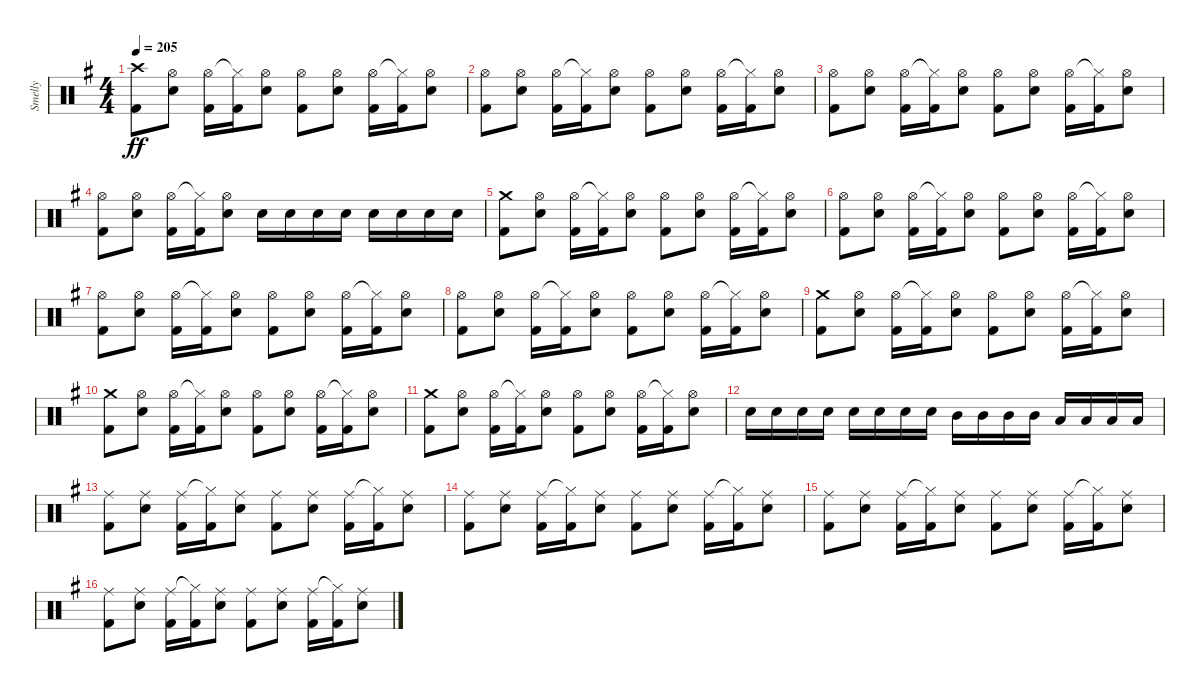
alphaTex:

\track ("Smelly" "Smelly") {instrument percussion}
\staff {score}
\articulation defaults
\ts (4 4)
\tempo 205
\clef neutral
\ks eminor
("Crash high (hit)" "Kick (hit) 2").8{dy ff} ("Hi-Hat (open)" "Electric Snare (hit)").8 ("Hi-Hat (open)" "Kick (hit) 2").16 ("Hi-Hat (closed)"{t} "Kick (hit) 2").16 ("Hi-Hat (open)" "Electric Snare (hit)").8 ("Hi-Hat (open)" "Kick (hit) 2").8 ("Hi-Hat (open)" "Electric Snare (hit)").8 ("Hi-Hat (open)" "Kick (hit) 2").16 ("Hi-Hat (closed)"{t} "Kick (hit) 2").16 ("Hi-Hat (open)" "Electric Snare (hit)").8 |
("Hi-Hat (open)" "Kick (hit) 2").8 ("Hi-Hat (open)" "Electric Snare (hit)").8 ("Hi-Hat (open)" "Kick (hit) 2").16 ("Hi-Hat (closed)"{t} "Kick (hit) 2").16 ("Hi-Hat (open)" "Electric Snare (hit)").8 ("Hi-Hat (open)" "Kick (hit) 2").8 ("Hi-Hat (open)" "Electric Snare (hit)").8 ("Hi-Hat (open)" "Kick (hit) 2").16 ("Hi-Hat (closed)"{t} "Kick (hit) 2").16 ("Hi-Hat (open)" "Electric Snare (hit)").8 |
("Hi-Hat (open)" "Kick (hit) 2").8 ("Hi-Hat (open)" "Electric Snare (hit)").8 ("Hi-Hat (open)" "Kick (hit) 2").16 ("Hi-Hat (closed)"{t} "Kick (hit) 2").16 ("Hi-Hat (open)" "Electric Snare (hit)").8 ("Hi-Hat (open)" "Kick (hit) 2").8 ("Hi-Hat (open)" "Electric Snare (hit)").8 ("Hi-Hat (open)" "Kick (hit) 2").16 ("Hi-Hat (closed)"{t} "Kick (hit) 2").16 ("Hi-Hat (open)" "Electric Snare (hit)").8 |
("Hi-Hat (open)" "Kick (hit) 2").8 ("Hi-Hat (open)" "Electric Snare (hit)").8 ("Hi-Hat (open)" "Kick (hit) 2").16 ("Hi-Hat (closed)"{t} "Kick (hit) 2").16 ("Hi-Hat (open)" "Electric Snare (hit)").8 "Electric Snare (hit)".16 "Electric Snare (hit)".16 "Electric Snare (hit)".16 "Electric Snare (hit)".16 "Electric Snare (hit)".16 "Electric Snare (hit)".16 "Electric Snare (hit)".16 "Electric Snare (hit)".16 |
("Crash medium (hit)" "Kick (hit) 2").8 ("Hi-Hat (open)" "Electric Snare (hit)").8 ("Hi-Hat (open)" "Kick (hit) 2").16 ("Hi-Hat (closed)"{t} "Kick (hit) 2").16 ("Hi-Hat (open)" "Electric Snare (hit)").8 ("Hi-Hat (open)" "Kick (hit) 2").8 ("Hi-Hat (open)" "Electric Snare (hit)").8 ("Hi-Hat (open)" "Kick (hit) 2").16 ("Hi-Hat (closed)"{t} "Kick (hit) 2").16 ("Hi-Hat (open)" "Electric Snare (hit)").8 |
("Hi-Hat (open)" "Kick (hit) 2").8 ("Hi-Hat (open)" "Electric Snare (hit)").8 ("Hi-Hat (open)" "Kick (hit) 2").16 ("Hi-Hat (closed)"{t} "Kick (hit) 2").16 ("Hi-Hat (open)" "Electric Snare (hit)").8 ("Hi-Hat (open)" "Kick (hit) 2").8 ("Hi-Hat (open)" "Electric Snare (hit)").8 ("Hi-Hat (open)" "Kick (hit) 2").16 ("Hi-Hat (closed)"{t} "Kick (hit) 2").16 ("Hi-Hat (open)" "Electric Snare (hit)").8 |
("Hi-Hat (open)" "Kick (hit) 2").8 ("Hi-Hat (open)" "Electric Snare (hit)").8 ("Hi-Hat (open)" "Kick (hit) 2").16 ("Hi-Hat (closed)"{t} "Kick (hit) 2").16 ("Hi-Hat (open)" "Electric Snare (hit)").8 ("Hi-Hat (open)" "Kick (hit) 2").8 ("Hi-Hat (open)" "Electric Snare (hit)").8 ("Hi-Hat (open)" "Kick (hit) 2").16 ("Hi-Hat (closed)"{t} "Kick (hit) 2").16 ("Hi-Hat (open)" "Electric Snare (hit)").8 |
("Hi-Hat (open)" "Kick (hit) 2").8 ("Hi-Hat (open)" "Electric Snare (hit)").8 ("Hi-Hat (open)" "Kick (hit) 2").16 ("Hi-Hat (closed)"{t} "Kick (hit) 2").16 ("Hi-Hat (open)" "Electric Snare (hit)").8 ("Hi-Hat (open)" "Kick (hit) 2").8 ("Hi-Hat (open)" "Electric Snare (hit)").8 ("Hi-Hat (open)" "Kick (hit) 2").16 ("Hi-Hat (closed)"{t} "Kick (hit) 2").16 ("Hi-Hat (open)" "Electric Snare (hit)").8 |
("Crash medium (hit)" "Kick (hit) 2").8 ("Hi-Hat (open)" "Electric Snare (hit)").8 ("Hi-Hat (open)" "Kick (hit) 2").16 ("Hi-Hat (closed)"{t} "Kick (hit) 2").16 ("Hi-Hat (open)" "Electric Snare (hit)").8 ("Hi-Hat (open)" "Kick (hit) 2").8 ("Hi-Hat (open)" "Electric Snare (hit)").8 ("Hi-Hat (open)" "Kick (hit) 2").16 ("Hi-Hat (closed)"{t} "Kick (hit) 2").16 ("Hi-Hat (open)" "Electric Snare (hit)").8 |
("Crash medium (hit)" "Kick (hit) 2").8 ("Hi-Hat (open)" "Electric Snare (hit)").8 ("Hi-Hat (open)" "Kick (hit) 2").16 ("Hi-Hat (closed)"{t} "Kick (hit) 2").16 ("Hi-Hat (open)" "Electric Snare (hit)").8 ("Hi-Hat (open)" "Kick (hit) 2").8 ("Hi-Hat (open)" "Electric Snare (hit)").8 ("Hi-Hat (open)" "Kick (hit) 2").16 ("Hi-Hat (closed)"{t} "Kick (hit) 2").16 ("Hi-Hat (open)" "Electric Snare (hit)").8 |
("Crash medium (hit)" "Kick (hit) 2").8 ("Hi-Hat (open)" "Electric Snare (hit)").8 ("Hi-Hat (open)" "Kick (hit) 2").16 ("Hi-Hat (closed)"{t} "Kick (hit) 2").16 ("Hi-Hat (open)" "Electric Snare (hit)").8 ("Hi-Hat (open)" "Kick (hit) 2").8 ("Hi-Hat (open)" "Electric Snare (hit)").8 ("Hi-Hat (open)" "Kick (hit) 2").16 ("Hi-Hat (closed)"{t} "Kick (hit) 2").16 ("Hi-Hat (open)" "Electric Snare (hit)").8 |
"Electric Snare (hit)".16 "Electric Snare (hit)".16 "Electric Snare (hit)".16 "Electric Snare (hit)".16 "Electric Snare (hit)".16 "Electric Snare (hit)".16 "Electric Snare (hit)".16 "Electric Snare (hit)".16 "Mid Tom (hit)".16 "Mid Tom (hit)".16 "Mid Tom (hit)".16 "Mid Tom (hit)".16 "Low Tom (hit)".16 "Low Tom (hit)".16 "Low Tom (hit)".16 "Low Tom (hit)".16 |
("Ride (middle)" "Kick (hit) 2").8 ("Ride (middle)" "Electric Snare (hit)").8 ("Ride (middle)" "Kick (hit) 2").16 ("Hi-Hat (closed)"{t} "Kick (hit) 2").16 ("Ride (middle)" "Electric Snare (hit)").8 ("Ride (middle)" "Kick (hit) 2").8 ("Ride (middle)" "Electric Snare (hit)").8 ("Ride (middle)" "Kick (hit) 2").16 ("Hi-Hat (closed)"{t} "Kick (hit) 2").16 ("Ride (middle)" "Electric Snare (hit)").8 |
("Ride (middle)" "Kick (hit) 2").8 ("Ride (middle)" "Electric Snare (hit)").8 ("Ride (middle)" "Kick (hit) 2").16 ("Hi-Hat (closed)"{t} "Kick (hit) 2").16 ("Ride (middle)" "Electric Snare (hit)").8 ("Ride (middle)" "Kick (hit) 2").8 ("Ride (middle)" "Electric Snare (hit)").8 ("Ride (middle)" "Kick (hit) 2").16 ("Hi-Hat (closed)"{t} "Kick (hit) 2").16 ("Ride (middle)" "Electric Snare (hit)").8 |
("Ride (middle)" "Kick (hit) 2").8 ("Ride (middle)" "Electric Snare (hit)").8 ("Ride (middle)" "Kick (hit) 2").16 ("Hi-Hat (closed)"{t} "Kick (hit) 2").16 ("Ride (middle)" "Electric Snare (hit)").8 ("Ride (middle)" "Kick (hit) 2").8 ("Ride (middle)" "Electric Snare (hit)").8 ("Ride (middle)" "Kick (hit) 2").16 ("Hi-Hat (closed)"{t} "Kick (hit) 2").16 ("Ride (middle)" "Electric Snare (hit)").8 |
("Ride (middle)" "Kick (hit) 2").8 ("Ride (middle)" "Electric Snare (hit)").8 ("Ride (middle)" "Kick (hit) 2").16 ("Hi-Hat (closed)"{t} "Kick (hit) 2").16 ("Ride (middle)" "Electric Snare (hit)").8 ("Ride (middle)" "Kick (hit) 2").8 ("Ride (middle)" "Electric Snare (hit)").8 ("Ride (middle)" "Kick (hit) 2").16 ("Hi-Hat (closed)"{t} "Kick (hit) 2").16 ("Ride (middle)" "Electric Snare (hit)").8
